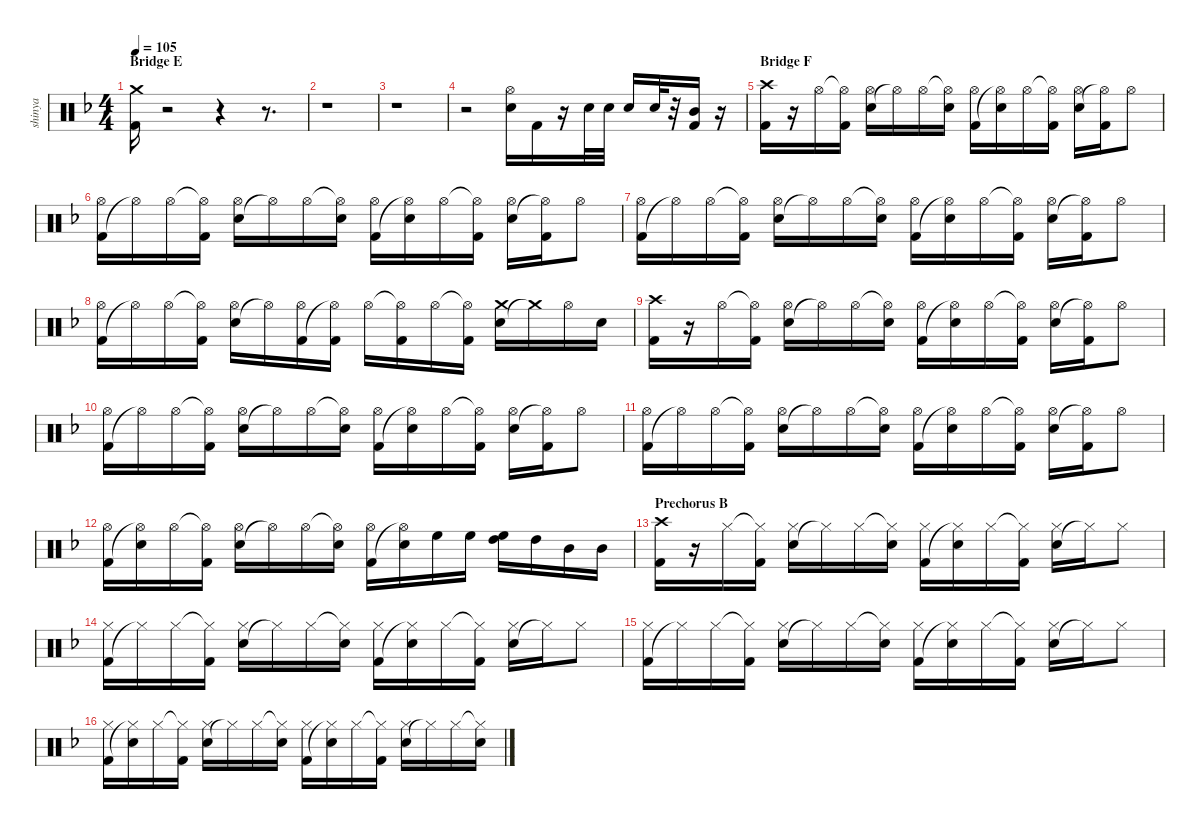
\defaultSystemsLayout 4
\hideDynamics
\bracketExtendMode nobrackets
\otherSystemsTrackNameOrientation horizontal
\track ("Shinya" "shinya") {defaultSystemsLayout 4 instrument percussion}
\staff {score}
\articulation defaults
\ts (4 4)
\section ("" "Bridge E")
\tempo 105
\clef neutral
\scale
1.05921
\ks dminor
("Kick (hit) 2"{acc forcenatural} "Crash medium (hit)"{acc forcenatural}).16{dy fff} r.2 r.4 r.8{d} |
\scale
0.974368 r.1 |
\scale
0.974368 r.1 |
\scale
0.992053 r.2 ("Snare (hit) 2"{acc forcenatural} "Hi-Hat (open)"{acc #}).16 "Kick (hit) 2"{acc forcenatural}.16 r.16 "Snare (hit) 2"{acc forcenatural}.32 "Snare (hit) 2"{acc forcenatural}.32 "Snare (hit) 2"{acc forcenatural}.16 "Snare (hit) 2"{acc forcenatural}.32 r.32 ("Kick (hit) 2"{acc forcenatural} "Mid Tom (hit)"{acc forcenatural}).16 r.16 |
\section ("" "Bridge F")
\scale
1.06363 ("Kick (hit) 2"{acc forcenatural} "Crash high (hit)"{acc #}).16 r.16 "Hi-Hat (open)"{acc #}.16 ("Hi-Hat (open)"{t acc #} "Kick (hit) 2"{acc forcenatural}).16 ("Snare (hit) 2"{acc forcenatural} "Hi-Hat (open)"{acc #}).16 "Hi-Hat (open)"{t acc #}.16 "Hi-Hat (open)"{acc #}.16{dy ff} ("Hi-Hat (open)"{t acc #} "Snare (hit) 2"{acc forcenatural}).16 ("Kick (hit) 2"{acc forcenatural} "Hi-Hat (open)"{acc #}).16{dy fff} ("Hi-Hat (open)"{t acc #} "Snare (hit) 2"{acc forcenatural}).16 "Hi-Hat (open)"{acc #}.16{dy ff} ("Hi-Hat (open)"{t acc #} "Kick (hit) 2"{acc forcenatural}).16 ("Snare (hit) 2"{acc forcenatural} "Hi-Hat (open)"{acc #}).16{dy fff} ("Hi-Hat (open)"{t acc #} "Kick (hit) 2"{acc forcenatural}).16 "Hi-Hat (open)"{acc #}.8 |
\scale
0.97879 ("Kick (hit) 2"{acc forcenatural} "Hi-Hat (open)"{acc #}).16 "Hi-Hat (open)"{t acc #}.16 "Hi-Hat (open)"{acc #}.16 ("Hi-Hat (open)"{t acc #} "Kick (hit) 2"{acc forcenatural}).16 ("Snare (hit) 2"{acc forcenatural} "Hi-Hat (open)"{acc #}).16 "Hi-Hat (open)"{t acc #}.16 "Hi-Hat (open)"{acc #}.16{dy ff} ("Hi-Hat (open)"{t acc #} "Snare (hit) 2"{acc forcenatural}).16 ("Kick (hit) 2"{acc forcenatural} "Hi-Hat (open)"{acc #}).16{dy fff} ("Hi-Hat (open)"{t acc #} "Snare (hit) 2"{acc forcenatural}).16 "Hi-Hat (open)"{acc #}.16{dy ff} ("Hi-Hat (open)"{t acc #} "Kick (hit) 2"{acc forcenatural}).16 ("Snare (hit) 2"{acc forcenatural} "Hi-Hat (open)"{acc #}).16{dy fff} ("Hi-Hat (open)"{t acc #} "Kick (hit) 2"{acc forcenatural}).16 "Hi-Hat (open)"{acc #}.8 |
\scale
0.97879 ("Kick (hit) 2"{acc forcenatural} "Hi-Hat (open)"{acc #}).16 "Hi-Hat (open)"{t acc #}.16 "Hi-Hat (open)"{acc #}.16 ("Hi-Hat (open)"{t acc #} "Kick (hit) 2"{acc forcenatural}).16 ("Snare (hit) 2"{acc forcenatural} "Hi-Hat (open)"{acc #}).16 "Hi-Hat (open)"{t acc #}.16 "Hi-Hat (open)"{acc #}.16{dy ff} ("Hi-Hat (open)"{t acc #} "Snare (hit) 2"{acc forcenatural}).16 ("Kick (hit) 2"{acc forcenatural} "Hi-Hat (open)"{acc #}).16{dy fff} ("Hi-Hat (open)"{t acc #} "Snare (hit) 2"{acc forcenatural}).16 "Hi-Hat (open)"{acc #}.16{dy ff} ("Hi-Hat (open)"{t acc #} "Kick (hit) 2"{acc forcenatural}).16 ("Snare (hit) 2"{acc forcenatural} "Hi-Hat (open)"{acc #}).16{dy fff} ("Hi-Hat (open)"{t acc #} "Kick (hit) 2"{acc forcenatural}).16 "Hi-Hat (open)"{acc #}.8 |
\scale
0.97879 ("Kick (hit) 2"{acc forcenatural} "Hi-Hat (open)"{acc #}).16 "Hi-Hat (open)"{t acc #}.16 "Hi-Hat (open)"{acc #}.16 ("Hi-Hat (open)"{t acc #} "Kick (hit) 2"{acc forcenatural}).16 ("Snare (hit) 2"{acc forcenatural} "Hi-Hat (open)"{acc #}).16 "Hi-Hat (open)"{t acc #}.16 ("Kick (hit) 2"{acc forcenatural} "Hi-Hat (open)"{acc #}).16 ("Hi-Hat (open)"{t acc #} "Kick (hit) 2"{acc forcenatural}).16{dy ff} "Hi-Hat (open)"{acc #}.16{dy fff} ("Hi-Hat (open)"{t acc #} "Kick (hit) 2"{acc forcenatural}).16 "Hi-Hat (open)"{acc #}.16{dy ff} ("Hi-Hat (open)"{t acc #} "Kick (hit) 2"{acc forcenatural}).16 ("Snare (hit) 2"{acc forcenatural} "Crash medium (hit)"{acc forcenatural}).16{dy fff} "Crash medium (hit)"{t acc forcenatural}.16 "Hi-Hat (open)"{acc #}.16 "Snare (hit) 2"{acc forcenatural}.16{dy f} |
\scale
1.05921 ("Kick (hit) 2"{acc forcenatural} "Crash high (hit)"{acc #}).16{dy fff} r.16 "Hi-Hat (open)"{acc #}.16 ("Hi-Hat (open)"{t acc #} "Kick (hit) 2"{acc forcenatural}).16 ("Snare (hit) 2"{acc forcenatural} "Hi-Hat (open)"{acc #}).16 "Hi-Hat (open)"{t acc #}.16 "Hi-Hat (open)"{acc #}.16{dy ff} ("Hi-Hat (open)"{t acc #} "Snare (hit) 2"{acc forcenatural}).16 ("Kick (hit) 2"{acc forcenatural} "Hi-Hat (open)"{acc #}).16{dy fff} ("Hi-Hat (open)"{t acc #} "Snare (hit) 2"{acc forcenatural}).16 "Hi-Hat (open)"{acc #}.16{dy ff} ("Hi-Hat (open)"{t acc #} "Kick (hit) 2"{acc forcenatural}).16 ("Snare (hit) 2"{acc forcenatural} "Hi-Hat (open)"{acc #}).16{dy fff} ("Hi-Hat (open)"{t acc #} "Kick (hit) 2"{acc forcenatural}).16 "Hi-Hat (open)"{acc #}.8 |
\scale
0.974368 ("Kick (hit) 2"{acc forcenatural} "Hi-Hat (open)"{acc #}).16 "Hi-Hat (open)"{t acc #}.16 "Hi-Hat (open)"{acc #}.16 ("Hi-Hat (open)"{t acc #} "Kick (hit) 2"{acc forcenatural}).16 ("Snare (hit) 2"{acc forcenatural} "Hi-Hat (open)"{acc #}).16 "Hi-Hat (open)"{t acc #}.16 "Hi-Hat (open)"{acc #}.16{dy ff} ("Hi-Hat (open)"{t acc #} "Snare (hit) 2"{acc forcenatural}).16 ("Kick (hit) 2"{acc forcenatural} "Hi-Hat (open)"{acc #}).16{dy fff} ("Hi-Hat (open)"{t acc #} "Snare (hit) 2"{acc forcenatural}).16 "Hi-Hat (open)"{acc #}.16{dy ff} ("Hi-Hat (open)"{t acc #} "Kick (hit) 2"{acc forcenatural}).16 ("Snare (hit) 2"{acc forcenatural} "Hi-Hat (open)"{acc #}).16{dy fff} ("Hi-Hat (open)"{t acc #} "Kick (hit) 2"{acc forcenatural}).16 "Hi-Hat (open)"{acc #}.8 |
\scale
0.974368 ("Kick (hit) 2"{acc forcenatural} "Hi-Hat (open)"{acc #}).16 "Hi-Hat (open)"{t acc #}.16 "Hi-Hat (open)"{acc #}.16 ("Hi-Hat (open)"{t acc #} "Kick (hit) 2"{acc forcenatural}).16 ("Snare (hit) 2"{acc forcenatural} "Hi-Hat (open)"{acc #}).16 "Hi-Hat (open)"{t acc #}.16 "Hi-Hat (open)"{acc #}.16{dy ff} ("Hi-Hat (open)"{t acc #} "Snare (hit) 2"{acc forcenatural}).16 ("Kick (hit) 2"{acc forcenatural} "Hi-Hat (open)"{acc #}).16{dy fff} ("Hi-Hat (open)"{t acc #} "Snare (hit) 2"{acc forcenatural}).16 "Hi-Hat (open)"{acc #}.16{dy ff} ("Hi-Hat (open)"{t acc #} "Kick (hit) 2"{acc forcenatural}).16 ("Snare (hit) 2"{acc forcenatural} "Hi-Hat (open)"{acc #}).16{dy fff} ("Hi-Hat (open)"{t acc #} "Kick (hit) 2"{acc forcenatural}).16 "Hi-Hat (open)"{acc #}.8 |
\scale
0.992053 ("Kick (hit) 2"{acc forcenatural} "Hi-Hat (open)"{acc #}).16 ("Hi-Hat (open)"{t acc #} "Snare (hit) 2"{acc forcenatural}).16 "Hi-Hat (open)"{acc #}.16 ("Hi-Hat (open)"{t acc #} "Kick (hit) 2"{acc forcenatural}).16 ("Snare (hit) 2"{acc forcenatural} "Hi-Hat (open)"{acc #}).16 "Hi-Hat (open)"{t acc #}.16 "Hi-Hat (open)"{acc #}.16{dy ff} ("Hi-Hat (open)"{t acc #} "Snare (hit) 2"{acc forcenatural}).16 ("Kick (hit) 2"{acc forcenatural} "Hi-Hat (open)"{acc #}).16{dy fff} ("Hi-Hat (open)"{t acc #} "Snare (hit) 2"{acc forcenatural}).16 "High Floor Tom (hit)"{acc forcenatural}.16 "High Floor Tom (hit)"{acc forcenatural}.16 ("High Tom (hit)"{acc forcenatural} "High Floor Tom (hit)"{acc forcenatural}).16 "High Tom (hit)"{acc forcenatural}.16 "Mid Tom (hit)"{acc forcenatural}.16 "Mid Tom (hit)"{acc forcenatural}.16 |
\section ("" "Prechorus B")
\scale
1.06363 ("Kick (hit) 2"{acc forcenatural} "Crash high (hit)"{acc #}).16 r.16 "Hi-Hat (closed)"{acc #}.16 ("Hi-Hat (closed)"{t acc #} "Kick (hit) 2"{acc forcenatural}).16 ("Snare (hit) 2"{acc forcenatural} "Hi-Hat (closed)"{acc #}).16 "Hi-Hat (closed)"{t acc #}.16 "Hi-Hat (closed)"{acc #}.16 ("Hi-Hat (closed)"{t acc #} "Snare (hit) 2"{acc forcenatural}).16 ("Kick (hit) 2"{acc forcenatural} "Hi-Hat (closed)"{acc #}).16 ("Hi-Hat (closed)"{t acc #} "Snare (hit) 2"{acc forcenatural}).16 "Hi-Hat (closed)"{acc #}.16 ("Hi-Hat (closed)"{t acc #} "Kick (hit) 2"{acc forcenatural}).16 ("Snare (hit) 2"{acc forcenatural} "Hi-Hat (closed)"{acc #}).16 "Hi-Hat (closed)"{t acc #}.16 "Hi-Hat (closed)"{acc #}.8 |
\scale
0.97879 ("Kick (hit) 2"{acc forcenatural} "Hi-Hat (closed)"{acc #}).16 "Hi-Hat (closed)"{t acc #}.16 "Hi-Hat (closed)"{acc #}.16 ("Hi-Hat (closed)"{t acc #} "Kick (hit) 2"{acc forcenatural}).16 ("Snare (hit) 2"{acc forcenatural} "Hi-Hat (closed)"{acc #}).16 "Hi-Hat (closed)"{t acc #}.16 "Hi-Hat (closed)"{acc #}.16 ("Hi-Hat (closed)"{t acc #} "Snare (hit) 2"{acc forcenatural}).16 ("Kick (hit) 2"{acc forcenatural} "Hi-Hat (closed)"{acc #}).16 ("Hi-Hat (closed)"{t acc #} "Snare (hit) 2"{acc forcenatural}).16 "Hi-Hat (closed)"{acc #}.16 ("Hi-Hat (closed)"{t acc #} "Kick (hit) 2"{acc forcenatural}).16 ("Snare (hit) 2"{acc forcenatural} "Hi-Hat (closed)"{acc #}).16 "Hi-Hat (closed)"{t acc #}.16 "Hi-Hat (closed)"{acc #}.8 |
\scale
0.97879 ("Kick (hit) 2"{acc forcenatural} "Hi-Hat (closed)"{acc #}).16 "Hi-Hat (closed)"{t acc #}.16 "Hi-Hat (closed)"{acc #}.16 ("Hi-Hat (closed)"{t acc #} "Kick (hit) 2"{acc forcenatural}).16 ("Snare (hit) 2"{acc forcenatural} "Hi-Hat (closed)"{acc #}).16 "Hi-Hat (closed)"{t acc #}.16 "Hi-Hat (closed)"{acc #}.16 ("Hi-Hat (closed)"{t acc #} "Snare (hit) 2"{acc forcenatural}).16 ("Kick (hit) 2"{acc forcenatural} "Hi-Hat (closed)"{acc #}).16 ("Hi-Hat (closed)"{t acc #} "Snare (hit) 2"{acc forcenatural}).16 "Hi-Hat (closed)"{acc #}.16 ("Hi-Hat (closed)"{t acc #} "Kick (hit) 2"{acc forcenatural}).16 ("Snare (hit) 2"{acc forcenatural} "Hi-Hat (closed)"{acc #}).16 "Hi-Hat (closed)"{t acc #}.16 "Hi-Hat (closed)"{acc #}.8 |
\scale
0.97879 ("Kick (hit) 2"{acc forcenatural} "Hi-Hat (closed)"{acc #}).16 ("Hi-Hat (closed)"{t acc #} "Snare (hit) 2"{acc forcenatural}).16 "Hi-Hat (closed)"{acc #}.16 ("Hi-Hat (closed)"{t acc #} "Kick (hit) 2"{acc forcenatural}).16 ("Snare (hit) 2"{acc forcenatural} "Hi-Hat (closed)"{acc #}).16 "Hi-Hat (closed)"{t acc #}.16 "Hi-Hat (closed)"{acc #}.16 ("Hi-Hat (closed)"{t acc #} "Snare (hit) 2"{acc forcenatural}).16 ("Kick (hit) 2"{acc forcenatural} "Hi-Hat (closed)"{acc #}).16 ("Hi-Hat (closed)"{t acc #} "Snare (hit) 2"{acc forcenatural}).16 "Hi-Hat (closed)"{acc #}.16 ("Hi-Hat (closed)"{t acc #} "Kick (hit) 2"{acc forcenatural}).16 ("Snare (hit) 2"{acc forcenatural} "Hi-Hat (closed)"{acc #}).16 "Hi-Hat (closed)"{t acc #}.16 "Hi-Hat (closed)"{acc #}.16 ("Hi-Hat (closed)"{t acc #} "Snare (hit) 2"{acc forcenatural}).16
